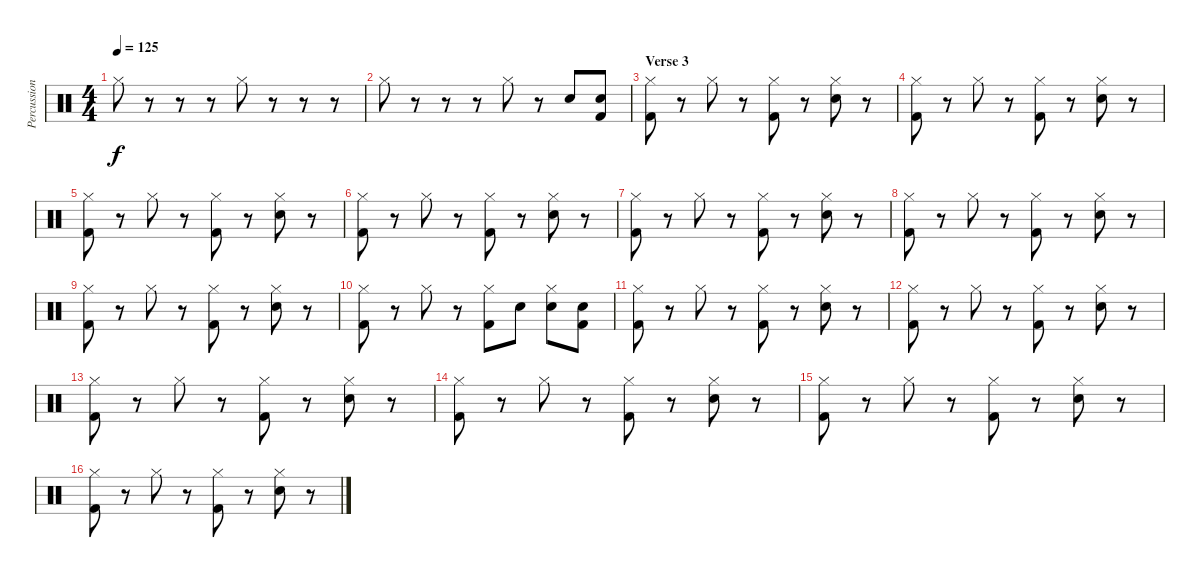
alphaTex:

\track ("Percussion" "Percussion") {instrument percussion}
\staff {score}
\articulation defaults
\ts (4 4)
\tempo 125
\clef neutral
\ks c "Hi-Hat (closed)".8{dy f}
r.8 r.8 r.8 "Hi-Hat (closed)".8 r.8 r.8 r.8 |
"Hi-Hat (closed)".8 r.8 r.8 r.8 "Hi-Hat (closed)".8 r.8 "Electric Snare (hit)".8 ("Electric Snare (hit)" "Kick (hit) 2").8 |
\section ("" "Verse 3")
("Kick (hit) 2" "Hi-Hat (closed)").8 r.8 "Hi-Hat (closed)".8 r.8 ("Kick (hit) 2" "Hi-Hat (closed)").8 r.8 ("Electric Snare (hit)" "Hi-Hat (closed)").8 r.8 |
("Kick (hit) 2" "Hi-Hat (closed)").8 r.8 "Hi-Hat (closed)".8 r.8 ("Kick (hit) 2" "Hi-Hat (closed)").8 r.8 ("Electric Snare (hit)" "Hi-Hat (closed)").8 r.8 |
("Kick (hit) 2" "Hi-Hat (closed)").8 r.8 "Hi-Hat (closed)".8 r.8 ("Kick (hit) 2" "Hi-Hat (closed)").8 r.8 ("Electric Snare (hit)" "Hi-Hat (closed)").8 r.8 |
("Kick (hit) 2" "Hi-Hat (closed)").8 r.8 "Hi-Hat (closed)".8 r.8 ("Kick (hit) 2" "Hi-Hat (closed)").8 r.8 ("Electric Snare (hit)" "Hi-Hat (closed)").8 r.8 |
("Kick (hit) 2" "Hi-Hat (closed)").8 r.8 "Hi-Hat (closed)".8 r.8 ("Kick (hit) 2" "Hi-Hat (closed)").8 r.8 ("Electric Snare (hit)" "Hi-Hat (closed)").8 r.8 |
("Kick (hit) 2" "Hi-Hat (closed)").8 r.8 "Hi-Hat (closed)".8 r.8 ("Kick (hit) 2" "Hi-Hat (closed)").8 r.8 ("Electric Snare (hit)" "Hi-Hat (closed)").8 r.8 |
("Kick (hit) 2" "Hi-Hat (closed)").8 r.8 "Hi-Hat (closed)".8 r.8 ("Kick (hit) 2" "Hi-Hat (closed)").8 r.8 ("Electric Snare (hit)" "Hi-Hat (closed)").8 r.8 |
("Kick (hit) 2" "Hi-Hat (closed)").8 r.8 "Hi-Hat (closed)".8 r.8 ("Kick (hit) 2" "Hi-Hat (closed)").8 "Electric Snare (hit)".8 ("Electric Snare (hit)" "Hi-Hat (closed)").8 ("Electric Snare (hit)" "Kick (hit) 2").8 |
("Kick (hit) 2" "Hi-Hat (closed)").8 r.8 "Hi-Hat (closed)".8 r.8 ("Kick (hit) 2" "Hi-Hat (closed)").8 r.8 ("Electric Snare (hit)" "Hi-Hat (closed)").8 r.8 |
("Kick (hit) 2" "Hi-Hat (closed)").8 r.8 "Hi-Hat (closed)".8 r.8 ("Kick (hit) 2" "Hi-Hat (closed)").8 r.8 ("Electric Snare (hit)" "Hi-Hat (closed)").8 r.8 |
("Kick (hit) 2" "Hi-Hat (closed)").8 r.8 "Hi-Hat (closed)".8 r.8 ("Kick (hit) 2" "Hi-Hat (closed)").8 r.8 ("Electric Snare (hit)" "Hi-Hat (closed)").8 r.8 |
("Kick (hit) 2" "Hi-Hat (closed)").8 r.8 "Hi-Hat (closed)".8 r.8 ("Kick (hit) 2" "Hi-Hat (closed)").8 r.8 ("Electric Snare (hit)" "Hi-Hat (closed)").8 r.8 |
("Kick (hit) 2" "Hi-Hat (closed)").8 r.8 "Hi-Hat (closed)".8 r.8 ("Kick (hit) 2" "Hi-Hat (closed)").8 r.8 ("Electric Snare (hit)" "Hi-Hat (closed)").8 r.8 |
("Kick (hit) 2" "Hi-Hat (closed)").8 r.8 "Hi-Hat (closed)".8 r.8 ("Kick (hit) 2" "Hi-Hat (closed)").8 r.8 ("Electric Snare (hit)" "Hi-Hat (closed)").8 r.8
